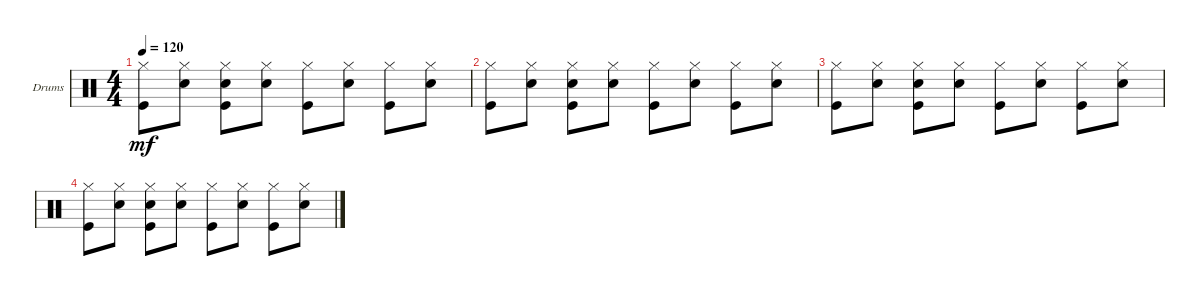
\defaultSystemsLayout 4
\bracketExtendMode groupsimilarinstruments
\firstSystemTrackNameOrientation horizontal
\otherSystemsTrackNameOrientation horizontal
\track ("Drumkit" "Drums") {instrument percussion}
\staff {score}
\articulation defaults
\ts (4 4)
\tempo 120
\clef neutral
\scale
0.333333
\ks c
("Kick (hit)" "Hi-Hat (closed)").8{dy mf} ("Hi-Hat (closed)" "Snare (hit) 2").8 ("Hi-Hat (closed)" "Kick (hit)" "Snare (hit) 2").8 ("Hi-Hat (closed)" "Snare (hit) 2").8 ("Hi-Hat (closed)" "Kick (hit)").8 ("Hi-Hat (closed)" "Snare (hit) 2").8 ("Hi-Hat (closed)" "Kick (hit)").8 ("Hi-Hat (closed)" "Snare (hit) 2").8 |
\scale
0.333333 ("Hi-Hat (closed)" "Kick (hit)").8 ("Hi-Hat (closed)" "Snare (hit) 2").8 ("Hi-Hat (closed)" "Kick (hit)" "Snare (hit) 2").8 ("Hi-Hat (closed)" "Snare (hit) 2").8 ("Hi-Hat (closed)" "Kick (hit)").8 ("Hi-Hat (closed)" "Snare (hit) 2").8 ("Hi-Hat (closed)" "Kick (hit)").8 ("Hi-Hat (closed)" "Snare (hit) 2").8 |
("Kick (hit)" "Hi-Hat (closed)").8 ("Hi-Hat (closed)" "Snare (hit) 2").8 ("Hi-Hat (closed)" "Kick (hit)" "Snare (hit) 2").8 ("Hi-Hat (closed)" "Snare (hit) 2").8 ("Hi-Hat (closed)" "Kick (hit)").8 ("Hi-Hat (closed)" "Snare (hit) 2").8 ("Hi-Hat (closed)" "Kick (hit)").8 ("Hi-Hat (closed)" "Snare (hit) 2").8 |
("Hi-Hat (closed)" "Kick (hit)").8 ("Hi-Hat (closed)" "Snare (hit) 2").8 ("Hi-Hat (closed)" "Kick (hit)" "Snare (hit) 2").8 ("Hi-Hat (closed)" "Snare (hit) 2").8 ("Hi-Hat (closed)" "Kick (hit)").8 ("Hi-Hat (closed)" "Snare (hit) 2").8 ("Hi-Hat (closed)" "Kick (hit)").8 ("Hi-Hat (closed)" "Snare (hit) 2").8
